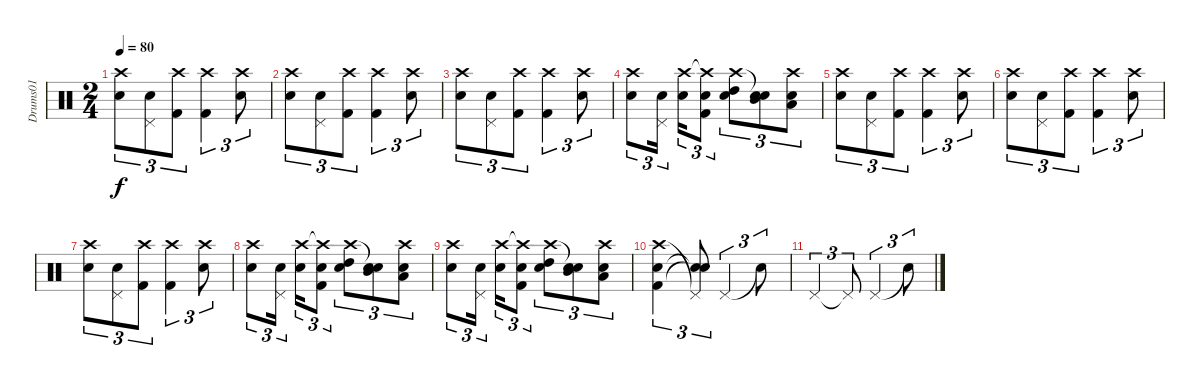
\track ("Drums01" "Drums01") {instrument percussion}
\staff {score}
\articulation defaults
\ts (2 4)
\tempo 80
\clef neutral
\ks c
("Crash high (hit)" "Snare (hit) 2").8{tu (3 2) dy f} ("Pedal Hi-Hat (hit)" "Snare (hit) 2").8{tu (3 2)} ("Crash high (hit)" "Kick (hit) 2").8{tu (3 2)} ("Crash high (hit)" "Kick (hit) 2").4{tu (3 2)} ("Crash high (hit)" "Snare (hit) 2").8{tu (3 2)} |
("Crash high (hit)" "Snare (hit) 2").8{tu (3 2)} ("Pedal Hi-Hat (hit)" "Snare (hit) 2").8{tu (3 2)} ("Crash high (hit)" "Kick (hit) 2").8{tu (3 2)} ("Crash high (hit)" "Kick (hit) 2").4{tu (3 2)} ("Crash high (hit)" "Snare (hit) 2").8{tu (3 2)} |
("Crash high (hit)" "Snare (hit) 2").8{tu (3 2)} ("Pedal Hi-Hat (hit)" "Snare (hit) 2").8{tu (3 2)} ("Crash high (hit)" "Kick (hit) 2").8{tu (3 2)} ("Crash high (hit)" "Kick (hit) 2").4{tu (3 2)} ("Crash high (hit)" "Snare (hit) 2").8{tu (3 2)} |
("Crash high (hit)" "Snare (hit) 2").8{tu (3 2)} ("Pedal Hi-Hat (hit)" "Snare (hit) 2").16{tu (3 2) beam splitsecondary} ("Crash high (hit)" "Snare (hit) 2").16{tu (3 2)} ("Crash high (hit)"{t} "Snare (hit) 2" "Kick (hit) 2").8{tu (3 2)} ("Crash high (hit)" "High Tom (hit)" "Snare (hit) 2").8{tu (3 2)} ("Snare (hit)"{t} "Mid Tom (hit)" "Snare (hit) 2").8{tu (3 2)} ("Crash high (hit)" "Low Tom (hit)" "Snare (hit) 2").8{tu (3 2)} |
("Crash high (hit)" "Snare (hit) 2").8{tu (3 2)} ("Pedal Hi-Hat (hit)" "Snare (hit) 2").8{tu (3 2)} ("Crash high (hit)" "Kick (hit) 2").8{tu (3 2)} ("Crash high (hit)" "Kick (hit) 2").4{tu (3 2)} ("Crash high (hit)" "Snare (hit) 2").8{tu (3 2)} |
("Crash high (hit)" "Snare (hit) 2").8{tu (3 2)} ("Pedal Hi-Hat (hit)" "Snare (hit) 2").8{tu (3 2)} ("Crash high (hit)" "Kick (hit) 2").8{tu (3 2)} ("Crash high (hit)" "Kick (hit) 2").4{tu (3 2)} ("Crash high (hit)" "Snare (hit) 2").8{tu (3 2)} |
("Crash high (hit)" "Snare (hit) 2").8{tu (3 2)} ("Pedal Hi-Hat (hit)" "Snare (hit) 2").8{tu (3 2)} ("Crash high (hit)" "Kick (hit) 2").8{tu (3 2)} ("Crash high (hit)" "Kick (hit) 2").4{tu (3 2)} ("Crash high (hit)" "Snare (hit) 2").8{tu (3 2)} |
("Crash high (hit)" "Snare (hit) 2").8{tu (3 2)} ("Pedal Hi-Hat (hit)" "Snare (hit) 2").16{tu (3 2) beam splitsecondary} ("Crash high (hit)" "Snare (hit) 2").16{tu (3 2)} ("Crash high (hit)"{t} "Snare (hit) 2" "Kick (hit) 2").8{tu (3 2)} ("Crash high (hit)" "High Tom (hit)" "Snare (hit) 2").8{tu (3 2)} ("Snare (hit)"{t} "Mid Tom (hit)" "Snare (hit) 2").8{tu (3 2)} ("Crash high (hit)" "Low Tom (hit)" "Snare (hit) 2").8{tu (3 2)} |
("Crash high (hit)" "Snare (hit) 2").8{tu (3 2)} ("Pedal Hi-Hat (hit)" "Snare (hit) 2").16{tu (3 2) beam splitsecondary} ("Crash high (hit)" "Snare (hit) 2").16{tu (3 2)} ("Crash high (hit)"{t} "Snare (hit) 2" "Kick (hit) 2").8{tu (3 2)} ("Crash high (hit)" "High Tom (hit)" "Snare (hit) 2").8{tu (3 2)} ("Snare (hit)"{t} "Mid Tom (hit)" "Snare (hit) 2").8{tu (3 2)} ("Crash high (hit)" "Low Tom (hit)" "Snare (hit) 2").8{tu (3 2)} |
("Crash high (hit)" "Snare (hit) 2" "Kick (hit) 2").4{tu (3 2)} ("Pedal Hi-Hat (hit)"{t} "Snare (hit)"{t} "Snare (hit)"{t}).8{tu (3 2)} "Pedal Hi-Hat (hit)".4{tu (3 2)} "Snare (hit)"{t}.8{tu (3 2)} |
"Pedal Hi-Hat (hit)".4{tu (3 2)} "Pedal Hi-Hat (hit)"{t}.8{tu (3 2)} "Pedal Hi-Hat (hit)".4{tu (3 2)} "Snare (hit)"{t}.8{tu (3 2)}
